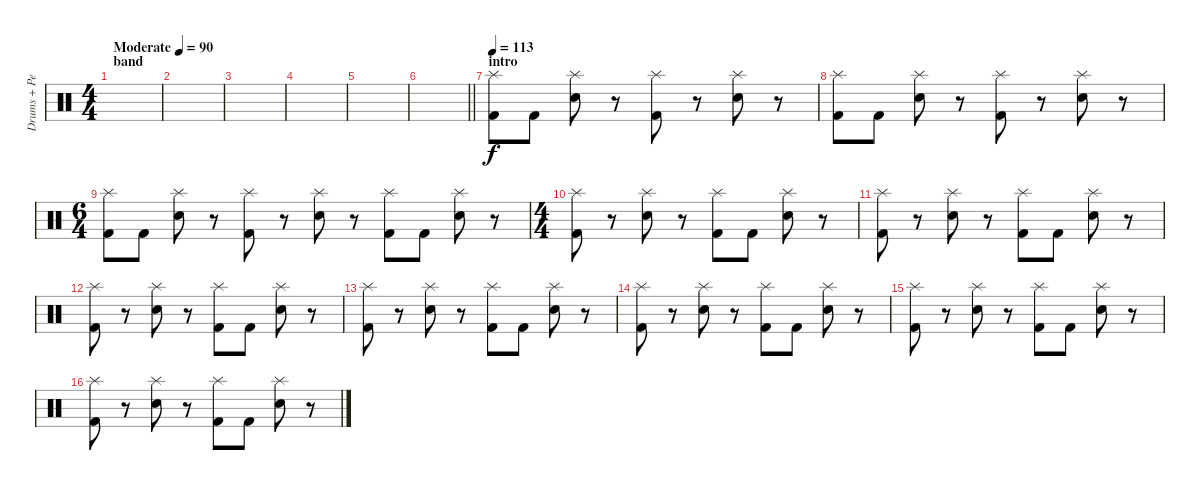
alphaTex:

\track ("Drums + Percussion" "Drums + Pe") {instrument percussion}
\staff {score}
\articulation defaults
\ts (4 4)
\section ("" "band")
\tempo (90 "Moderate")
\clef neutral
\ks c
|
|
|
|
|
\barLineRight lightlight
|
\section ("" "intro")
\tempo 113
("Splash (hit)" "Kick (hit) 2").8{volume 13} "Kick (hit) 2".8 ("Splash (hit)" "Snare (hit) 2").8 r.8 ("Splash (hit)" "Kick (hit) 2").8 r.8 ("Splash (hit)" "Snare (hit) 2").8 r.8 |
("Splash (hit)" "Kick (hit) 2").8{volume 13} "Kick (hit) 2".8 ("Splash (hit)" "Snare (hit) 2").8 r.8 ("Splash (hit)" "Kick (hit) 2").8 r.8 ("Splash (hit)" "Snare (hit) 2").8 r.8 |
\ts (6 4)
("Splash (hit)" "Kick (hit) 2").8 "Kick (hit) 2".8 ("Splash (hit)" "Snare (hit) 2").8 r.8 ("Splash (hit)" "Kick (hit) 2").8 r.8 ("Splash (hit)" "Snare (hit) 2").8 r.8 ("Splash (hit)" "Kick (hit) 2").8 "Kick (hit) 2".8 ("Splash (hit)" "Snare (hit) 2").8 r.8 |
\ts (4 4)
("Splash (hit)" "Kick (hit) 2").8 r.8 ("Splash (hit)" "Snare (hit) 2").8 r.8 ("Splash (hit)" "Kick (hit) 2").8 "Kick (hit) 2".8 ("Splash (hit)" "Snare (hit) 2").8 r.8 |
("Splash (hit)" "Kick (hit) 2").8 r.8 ("Splash (hit)" "Snare (hit) 2").8 r.8 ("Splash (hit)" "Kick (hit) 2").8 "Kick (hit) 2".8 ("Splash (hit)" "Snare (hit) 2").8 r.8 |
("Splash (hit)" "Kick (hit) 2").8 r.8 ("Splash (hit)" "Snare (hit) 2").8 r.8 ("Splash (hit)" "Kick (hit) 2").8 "Kick (hit) 2".8 ("Splash (hit)" "Snare (hit) 2").8 r.8 |
("Splash (hit)" "Kick (hit) 2").8 r.8 ("Splash (hit)" "Snare (hit) 2").8 r.8 ("Splash (hit)" "Kick (hit) 2").8 "Kick (hit) 2".8 ("Splash (hit)" "Snare (hit) 2").8 r.8 |
("Splash (hit)" "Kick (hit) 2").8 r.8 ("Splash (hit)" "Snare (hit) 2").8 r.8 ("Splash (hit)" "Kick (hit) 2").8 "Kick (hit) 2".8 ("Splash (hit)" "Snare (hit) 2").8 r.8 |
("Splash (hit)" "Kick (hit) 2").8 r.8 ("Splash (hit)" "Snare (hit) 2").8 r.8 ("Splash (hit)" "Kick (hit) 2").8 "Kick (hit) 2".8 ("Splash (hit)" "Snare (hit) 2").8 r.8 |
("Splash (hit)" "Kick (hit) 2").8 r.8 ("Splash (hit)" "Snare (hit) 2").8 r.8 ("Splash (hit)" "Kick (hit) 2").8 "Kick (hit) 2".8 ("Splash (hit)" "Snare (hit) 2").8 r.8
